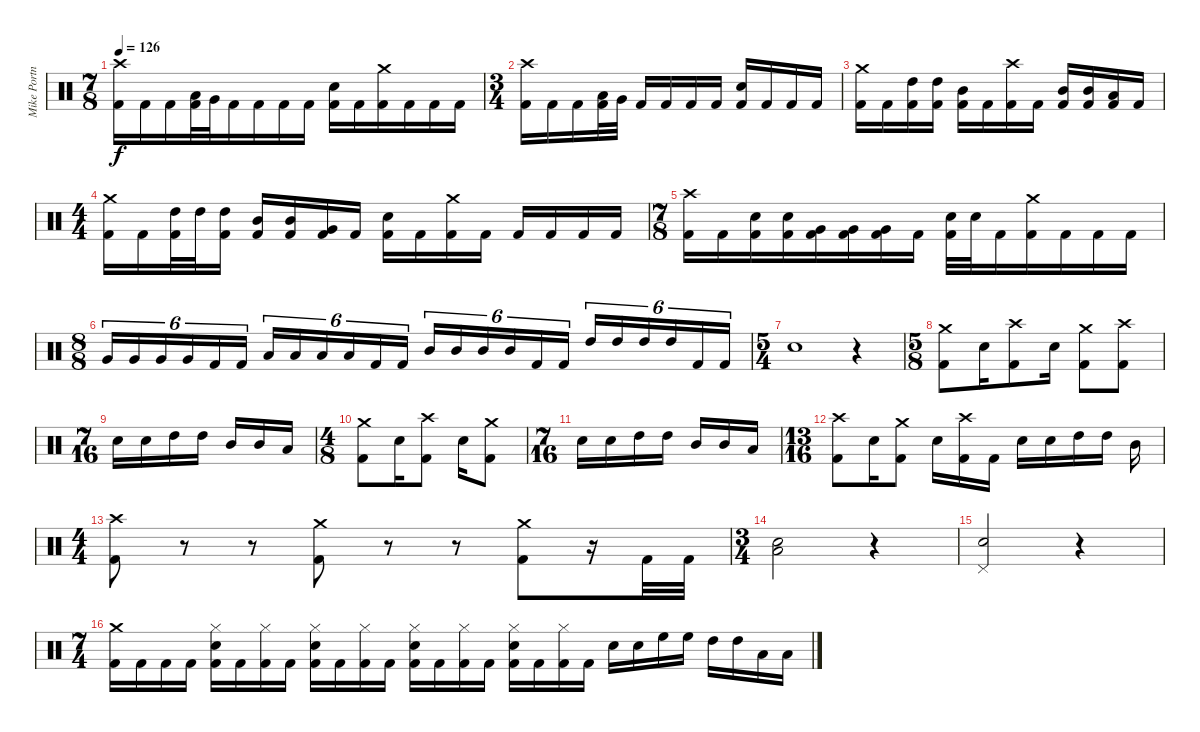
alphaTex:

\track ("Mike Portnoy" "Mike Portn") {instrument percussion}
\staff {score}
\articulation defaults
\ts (7 8)
\tempo 126
\clef neutral
\ks c
("Crash high (hit)" "Kick (hit) 2").16{dy f} "Kick (hit) 2".16 "Kick (hit) 2".16 ("Low Tom (hit)" "Kick (hit) 2").32 "Very Low Tom (hit)".32 "Kick (hit) 2".16 "Kick (hit) 2".16 "Kick (hit) 2".16 "Kick (hit) 2".16 ("Snare (hit) 2" "Kick (hit) 2").16 "Kick (hit) 2".16 ("Crash medium (hit)" "Kick (hit) 2").16 "Kick (hit) 2".16 "Kick (hit) 2".16 "Kick (hit) 2".16 |
\ts (3 4)
("Crash high (hit)" "Kick (hit) 2").16 "Kick (hit) 2".16 "Kick (hit) 2".16 ("Low Tom (hit)" "Kick (hit) 2").32 "Very Low Tom (hit)".32 "Kick (hit) 2".16 "Kick (hit) 2".16 "Kick (hit) 2".16 "Kick (hit) 2".16 ("Snare (hit) 2" "Kick (hit) 2").16 "Kick (hit) 2".16 "Kick (hit) 2".16 "Kick (hit) 2".16 |
("Crash medium (hit)" "Kick (hit) 2").16 "Kick (hit) 2".16 ("High Tom (hit)" "Kick (hit) 2").16 ("High Tom (hit)" "Kick (hit) 2").16 ("Mid Tom (hit)" "Kick (hit) 2").16 "Kick (hit) 2".16 ("Crash high (hit)" "Kick (hit) 2").16 "Kick (hit) 2".16 ("Mid Tom (hit)" "Kick (hit) 2").16 ("Mid Tom (hit)" "Kick (hit) 2").16 ("Low Floor Tom (hit)" "Kick (hit) 2").16 "Kick (hit) 2".16 |
\ts (4 4)
("Crash medium (hit)" "Kick (hit) 2").16 "Kick (hit) 2".16 ("High Tom (hit)" "Kick (hit) 2").32 "High Tom (hit)".32 ("High Tom (hit)" "Kick (hit) 2").16 ("Mid Tom (hit)" "Kick (hit) 2").16 ("Mid Tom (hit)" "Kick (hit) 2").16 ("Very Low Tom (hit)" "Kick (hit) 2").16 "Kick (hit) 2".16 ("Snare (hit) 2" "Kick (hit) 2").16 "Kick (hit) 2".16 ("Crash medium (hit)" "Kick (hit) 2").16 "Kick (hit) 2".16 "Kick (hit) 2".16 "Kick (hit) 2".16 "Kick (hit) 2".16 "Kick (hit) 2".16 |
\ts (7 8)
("Crash high (hit)" "Kick (hit) 2").16 "Kick (hit) 2".16 ("Snare (hit) 2" "Kick (hit) 2").16 ("Snare (hit) 2" "Kick (hit) 2").16 ("Very Low Tom (hit)" "Kick (hit) 2").16 ("Very Low Tom (hit)" "Kick (hit) 2").16 ("Very Low Tom (hit)" "Kick (hit) 2").16 "Kick (hit) 2".16 ("Snare (hit) 2" "Kick (hit) 2").32 "Snare (hit) 2".32 "Kick (hit) 2".16 ("Crash medium (hit)" "Kick (hit) 2").16 "Kick (hit) 2".16 "Kick (hit) 2".16 "Kick (hit) 2".16 |
\ts (8 8)
"Very Low Tom (hit)".16{tu (6 4)} "Very Low Tom (hit)".16{tu (6 4)} "Very Low Tom (hit)".16{tu (6 4)} "Very Low Tom (hit)".16{tu (6 4)} "Kick (hit) 2".16{tu (6 4)} "Kick (hit) 2".16{tu (6 4)} "Low Tom (hit)".16{tu (6 4)} "Low Tom (hit)".16{tu (6 4)} "Low Tom (hit)".16{tu (6 4)} "Low Tom (hit)".16{tu (6 4)} "Kick (hit) 2".16{tu (6 4)} "Kick (hit) 2".16{tu (6 4)} "Mid Tom (hit)".16{tu (6 4)} "Mid Tom (hit)".16{tu (6 4)} "Mid Tom (hit)".16{tu (6 4)} "Mid Tom (hit)".16{tu (6 4)} "Kick (hit) 2".16{tu (6 4)} "Kick (hit) 2".16{tu (6 4)} "High Tom (hit)".16{tu (6 4)} "High Tom (hit)".16{tu (6 4)} "High Tom (hit)".16{tu (6 4)} "High Tom (hit)".16{tu (6 4)} "Kick (hit) 2".16{tu (6 4)} "Kick (hit) 2".16{tu (6 4)} |
\ts (5 4)
"Snare (hit) 2".1 r.4 |
\ts (5 8)
("Crash medium (hit)" "Kick (hit) 2").8 "Snare (hit) 2".16 ("Crash high (hit)" "Kick (hit) 2").8 "Snare (hit) 2".16 ("Crash medium (hit)" "Kick (hit) 2").8 ("Crash high (hit)" "Kick (hit) 2").8 |
\ts (7 16)
"Snare (hit) 2".16 "Snare (hit) 2".16 "High Tom (hit)".16 "High Tom (hit)".16 "Mid Tom (hit)".16 "Mid Tom (hit)".16 "Low Tom (hit)".16 |
\ts (4 8)
("Crash medium (hit)" "Kick (hit) 2").8 "Snare (hit) 2".16 ("Crash high (hit)" "Kick (hit) 2").8 "Snare (hit) 2".16 ("Crash medium (hit)" "Kick (hit) 2").8 |
\ts (7 16)
"Snare (hit) 2".16 "Snare (hit) 2".16 "High Tom (hit)".16 "High Tom (hit)".16 "Mid Tom (hit)".16 "Mid Tom (hit)".16 "Low Tom (hit)".16 |
\ts (13 16)
("Crash high (hit)" "Kick (hit) 2").8 "Snare (hit) 2".16 ("Crash medium (hit)" "Kick (hit) 2").8 "Snare (hit) 2".16 ("Crash high (hit)" "Kick (hit) 2").16 "Kick (hit) 2".16 "Snare (hit) 2".16 "Snare (hit) 2".16 "High Tom (hit)".16 "High Tom (hit)".16 "Mid Tom (hit)".16 |
\ts (4 4)
("Crash high (hit)" "Kick (hit) 2").8 r.8 r.8 ("Crash medium (hit)" "Kick (hit) 2").8 r.8 r.8 ("Crash medium (hit)" "Kick (hit) 2").8 r.16 "Kick (hit) 2".32 "Kick (hit) 2".32 |
\ts (3 4)
("Snare (hit) 2" "Low Floor Tom (hit)").2 r.4 |
("Snare (hit) 2" "Pedal Hi-Hat (hit)").2 r.4 |
\ts (7 4)
("Crash medium (hit)" "Kick (hit) 2").16 "Kick (hit) 2".16 "Kick (hit) 2".16 "Kick (hit) 2".16 ("Hi-Hat (closed)" "Snare (hit) 2" "Kick (hit) 2").16 "Kick (hit) 2".16 ("Hi-Hat (closed)" "Kick (hit) 2").16 "Kick (hit) 2".16 ("Hi-Hat (closed)" "Snare (hit) 2" "Kick (hit) 2").16 "Kick (hit) 2".16 ("Hi-Hat (closed)" "Kick (hit) 2").16 "Kick (hit) 2".16 ("Hi-Hat (closed)" "Snare (hit) 2" "Kick (hit) 2").16 "Kick (hit) 2".16 ("Hi-Hat (closed)" "Kick (hit) 2").16 "Kick (hit) 2".16 ("Hi-Hat (closed)" "Snare (hit) 2" "Kick (hit) 2").16 "Kick (hit) 2".16 ("Hi-Hat (closed)" "Kick (hit) 2").16 "Kick (hit) 2".16 "Snare (hit) 2".16 "Snare (hit) 2".16 "High Floor Tom (hit)".16 "High Floor Tom (hit)".16 "High Tom (hit)".16 "High Tom (hit)".16 "Low Tom (hit)".16 "Low Tom (hit)".16
